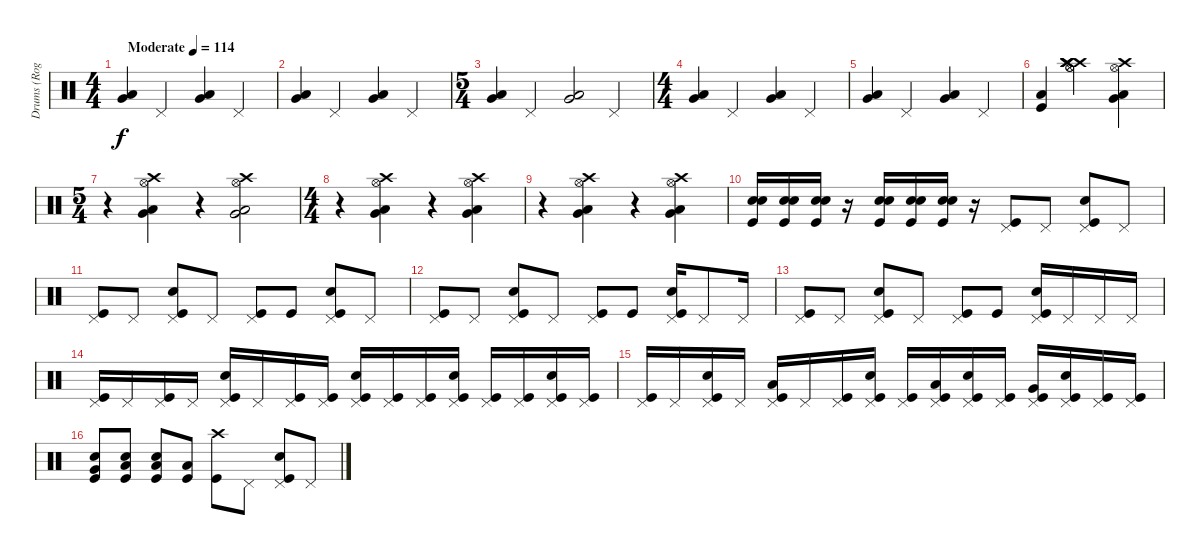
\track ("Drums (Roger Earl)" "Drums (Rog") {solo instrument percussion}
\staff {score}
\articulation defaults
\ts (4 4)
\tempo (114 "Moderate")
\clef neutral
\ks c
("Very Low Tom (hit)" "Low Floor Tom (hit)").4{dy f} "Pedal Hi-Hat (hit)".4 ("Very Low Tom (hit)" "Low Floor Tom (hit)").4 "Pedal Hi-Hat (hit)".4 |
("Very Low Tom (hit)" "Low Floor Tom (hit)").4 "Pedal Hi-Hat (hit)".4 ("Very Low Tom (hit)" "Low Floor Tom (hit)").4 "Pedal Hi-Hat (hit)".4 |
\ts (5 4)
("Very Low Tom (hit)" "Low Floor Tom (hit)").4 "Pedal Hi-Hat (hit)".4 ("Very Low Tom (hit)" "Low Floor Tom (hit)").2 "Pedal Hi-Hat (hit)".4 |
\ts (4 4)
("Very Low Tom (hit)" "Low Floor Tom (hit)").4 "Pedal Hi-Hat (hit)".4 ("Very Low Tom (hit)" "Low Floor Tom (hit)").4 "Pedal Hi-Hat (hit)".4 |
("Very Low Tom (hit)" "Low Floor Tom (hit)").4 "Pedal Hi-Hat (hit)".4 ("Very Low Tom (hit)" "Low Floor Tom (hit)").4 "Pedal Hi-Hat (hit)".4 |
("Low Floor Tom (hit)" "Kick (hit)").4 ("Hi-Hat (open)" "Hi-Hat (open)" "Crash high (hit)" "Crash high (hit)" "Crash high (hit)" "Crash high (hit)").2 ("Hi-Hat (open)" "Crash high (hit)" "Very Low Tom (hit)" "Low Floor Tom (hit)").4 |
\ts (5 4)
r.4 ("Hi-Hat (open)" "Crash high (hit)" "Very Low Tom (hit)" "Low Floor Tom (hit)").4 r.4 ("Hi-Hat (open)" "Crash high (hit)" "Very Low Tom (hit)" "Low Floor Tom (hit)").2 |
\ts (4 4)
r.4 ("Hi-Hat (open)" "Crash high (hit)" "Very Low Tom (hit)" "Low Floor Tom (hit)").4 r.4 ("Hi-Hat (open)" "Crash high (hit)" "Very Low Tom (hit)" "Low Floor Tom (hit)").4 |
r.4 ("Hi-Hat (open)" "Crash high (hit)" "Very Low Tom (hit)" "Low Floor Tom (hit)").4 r.4 ("Hi-Hat (open)" "Crash high (hit)" "Very Low Tom (hit)" "Low Floor Tom (hit)").4 |
("Snare (hit) 2" "Kick (hit)" "Snare (hit) 2").16 ("Snare (hit) 2" "Kick (hit)" "Snare (hit) 2").16 ("Snare (hit) 2" "Kick (hit)" "Snare (hit) 2").16 r.16 ("Snare (hit) 2" "Kick (hit)" "Snare (hit) 2").16 ("Snare (hit) 2" "Kick (hit)" "Snare (hit) 2").16 ("Snare (hit) 2" "Kick (hit)" "Snare (hit) 2").16 r.16 ("Pedal Hi-Hat (hit)" "Kick (hit)").8 "Pedal Hi-Hat (hit)".8 ("Pedal Hi-Hat (hit)" "Snare (hit) 2" "Kick (hit)").8 "Pedal Hi-Hat (hit)".8 |
("Pedal Hi-Hat (hit)" "Kick (hit)").8 "Pedal Hi-Hat (hit)".8 ("Pedal Hi-Hat (hit)" "Snare (hit) 2" "Kick (hit)").8 "Pedal Hi-Hat (hit)".8 ("Pedal Hi-Hat (hit)" "Kick (hit)").8 "Kick (hit)".8 ("Pedal Hi-Hat (hit)" "Snare (hit) 2" "Kick (hit)").8 "Pedal Hi-Hat (hit)".8 |
("Pedal Hi-Hat (hit)" "Kick (hit)").8 "Pedal Hi-Hat (hit)".8 ("Pedal Hi-Hat (hit)" "Snare (hit) 2" "Kick (hit)").8 "Pedal Hi-Hat (hit)".8 ("Pedal Hi-Hat (hit)" "Kick (hit)").8 "Kick (hit)".8 ("Pedal Hi-Hat (hit)" "Snare (hit) 2" "Kick (hit)").16 "Pedal Hi-Hat (hit)".8 "Pedal Hi-Hat (hit)".16 |
("Pedal Hi-Hat (hit)" "Kick (hit)").8 "Pedal Hi-Hat (hit)".8 ("Pedal Hi-Hat (hit)" "Snare (hit) 2" "Kick (hit)").8 "Pedal Hi-Hat (hit)".8 ("Pedal Hi-Hat (hit)" "Kick (hit)").8 "Kick (hit)".8 ("Pedal Hi-Hat (hit)" "Snare (hit) 2" "Kick (hit)").16 "Pedal Hi-Hat (hit)".16 "Pedal Hi-Hat (hit)".16 "Pedal Hi-Hat (hit)".16 |
("Pedal Hi-Hat (hit)" "Kick (hit)").16 "Pedal Hi-Hat (hit)".16 ("Pedal Hi-Hat (hit)" "Kick (hit)").16 "Pedal Hi-Hat (hit)".16 ("Pedal Hi-Hat (hit)" "Snare (hit) 2" "Kick (hit)").16 "Pedal Hi-Hat (hit)".16 ("Pedal Hi-Hat (hit)" "Kick (hit)").16 ("Pedal Hi-Hat (hit)" "Kick (hit)").16 ("Pedal Hi-Hat (hit)" "Snare (hit) 2" "Kick (hit)").16 ("Pedal Hi-Hat (hit)" "Kick (hit)").16 ("Pedal Hi-Hat (hit)" "Kick (hit)").16 ("Pedal Hi-Hat (hit)" "Snare (hit) 2" "Kick (hit)").16 ("Pedal Hi-Hat (hit)" "Kick (hit)").16 ("Pedal Hi-Hat (hit)" "Kick (hit)").16 ("Pedal Hi-Hat (hit)" "Snare (hit) 2" "Kick (hit)").16 ("Pedal Hi-Hat (hit)" "Kick (hit)").16 |
("Pedal Hi-Hat (hit)" "Kick (hit)").16 "Pedal Hi-Hat (hit)".16 ("Pedal Hi-Hat (hit)" "Snare (hit) 2" "Kick (hit)").16 "Pedal Hi-Hat (hit)".16 ("Pedal Hi-Hat (hit)" "Low Tom (hit)" "Kick (hit)").16 "Pedal Hi-Hat (hit)".16 ("Pedal Hi-Hat (hit)" "Kick (hit)").16 ("Pedal Hi-Hat (hit)" "Snare (hit) 2" "Kick (hit)").16 ("Pedal Hi-Hat (hit)" "Kick (hit)").16 ("Pedal Hi-Hat (hit)" "Low Floor Tom (hit)" "Kick (hit)").16 ("Pedal Hi-Hat (hit)" "Snare (hit) 2" "Kick (hit)").16 ("Pedal Hi-Hat (hit)" "Kick (hit)").16 ("Pedal Hi-Hat (hit)" "Very Low Tom (hit)" "Kick (hit)").16 ("Pedal Hi-Hat (hit)" "Snare (hit) 2" "Kick (hit)").16 ("Pedal Hi-Hat (hit)" "Kick (hit)").16 ("Pedal Hi-Hat (hit)" "Kick (hit)").16 |
("Snare (hit) 2" "Very Low Tom (hit)" "Kick (hit)").8 ("Snare (hit) 2" "Low Tom (hit)" "Kick (hit)").8 ("Snare (hit) 2" "Low Floor Tom (hit)" "Kick (hit)").8 ("Low Floor Tom (hit)" "Kick (hit)").8 ("Crash high (hit)" "Kick (hit)").8 "Pedal Hi-Hat (hit)".8 ("Pedal Hi-Hat (hit)" "Snare (hit) 2" "Kick (hit)").8 "Pedal Hi-Hat (hit)".8
